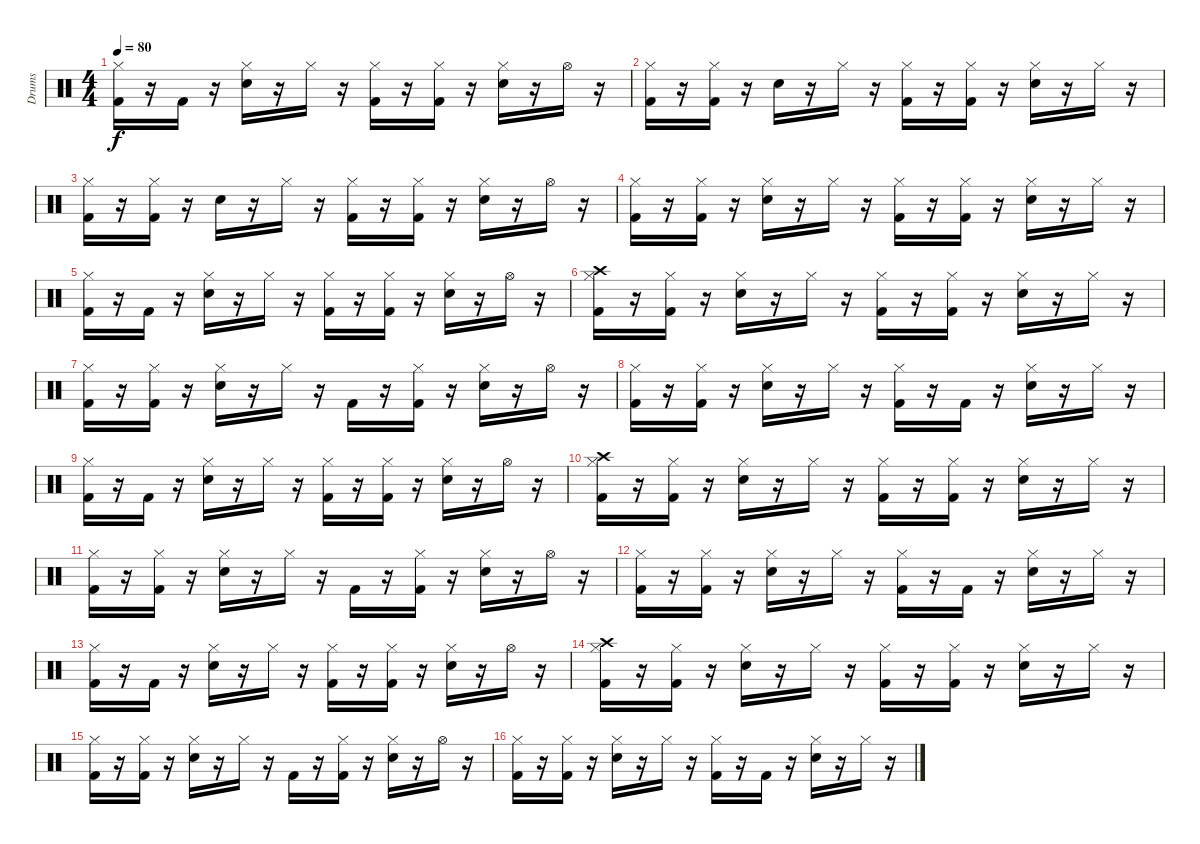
\track ("Drums" "Drums") {instrument percussion}
\staff {score}
\articulation defaults
\ts (4 4)
\tempo 80
\clef neutral
\ks c
("Kick (hit) 2" "Hi-Hat (closed)").16{dy f} r.16 "Kick (hit) 2".16 r.16 ("Snare (hit) 2" "Hi-Hat (closed)").16 r.16 "Hi-Hat (closed)".16 r.16 ("Kick (hit) 2" "Hi-Hat (closed)").16 r.16 ("Kick (hit) 2" "Hi-Hat (closed)").16 r.16 ("Snare (hit) 2" "Hi-Hat (closed)").16 r.16 "Hi-Hat (open)".16 r.16 |
("Kick (hit) 2" "Hi-Hat (closed)").16 r.16 ("Kick (hit) 2" "Hi-Hat (closed)").16 r.16 "Snare (hit) 2".16 r.16 "Hi-Hat (closed)".16 r.16 ("Kick (hit) 2" "Hi-Hat (closed)").16 r.16 ("Kick (hit) 2" "Hi-Hat (closed)").16 r.16 ("Snare (hit) 2" "Hi-Hat (closed)").16 r.16 "Hi-Hat (closed)".16 r.16 |
("Kick (hit) 2" "Hi-Hat (closed)").16 r.16 ("Kick (hit) 2" "Hi-Hat (closed)").16 r.16 "Snare (hit) 2".16 r.16 "Hi-Hat (closed)".16 r.16 ("Kick (hit) 2" "Hi-Hat (closed)").16 r.16 ("Kick (hit) 2" "Hi-Hat (closed)").16 r.16 ("Snare (hit) 2" "Hi-Hat (closed)").16 r.16 "Hi-Hat (open)".16 r.16 |
("Kick (hit) 2" "Hi-Hat (closed)").16 r.16 ("Kick (hit) 2" "Hi-Hat (closed)").16 r.16 ("Snare (hit) 2" "Hi-Hat (closed)").16 r.16 "Hi-Hat (closed)".16 r.16 ("Kick (hit) 2" "Hi-Hat (closed)").16 r.16 ("Kick (hit) 2" "Hi-Hat (closed)").16 r.16 ("Snare (hit) 2" "Hi-Hat (closed)").16 r.16 "Hi-Hat (closed)".16 r.16 |
("Kick (hit) 2" "Hi-Hat (closed)").16 r.16 "Kick (hit) 2".16 r.16 ("Snare (hit) 2" "Hi-Hat (closed)").16 r.16 "Hi-Hat (closed)".16 r.16 ("Kick (hit) 2" "Hi-Hat (closed)").16 r.16 ("Kick (hit) 2" "Hi-Hat (closed)").16 r.16 ("Snare (hit) 2" "Hi-Hat (closed)").16 r.16 "Hi-Hat (open)".16 r.16 |
("Kick (hit) 2" "Hi-Hat (closed)" "Crash high (hit)").16 r.16 ("Kick (hit) 2" "Hi-Hat (closed)").16 r.16 ("Snare (hit) 2" "Hi-Hat (closed)").16 r.16 "Hi-Hat (closed)".16 r.16 ("Kick (hit) 2" "Hi-Hat (closed)").16 r.16 ("Kick (hit) 2" "Hi-Hat (closed)").16 r.16 ("Snare (hit) 2" "Hi-Hat (closed)").16 r.16 "Hi-Hat (closed)".16 r.16 |
("Kick (hit) 2" "Hi-Hat (closed)").16 r.16 ("Kick (hit) 2" "Hi-Hat (closed)").16 r.16 ("Snare (hit) 2" "Hi-Hat (closed)").16 r.16 "Hi-Hat (closed)".16 r.16 "Kick (hit) 2".16 r.16 ("Kick (hit) 2" "Hi-Hat (closed)").16 r.16 ("Snare (hit) 2" "Hi-Hat (closed)").16 r.16 "Hi-Hat (open)".16 r.16 |
("Kick (hit) 2" "Hi-Hat (closed)").16 r.16 ("Kick (hit) 2" "Hi-Hat (closed)").16 r.16 ("Snare (hit) 2" "Hi-Hat (closed)").16 r.16 "Hi-Hat (closed)".16 r.16 ("Kick (hit) 2" "Hi-Hat (closed)").16 r.16 "Kick (hit) 2".16 r.16 ("Snare (hit) 2" "Hi-Hat (closed)").16 r.16 "Hi-Hat (closed)".16 r.16 |
("Kick (hit) 2" "Hi-Hat (closed)").16 r.16 "Kick (hit) 2".16 r.16 ("Snare (hit) 2" "Hi-Hat (closed)").16 r.16 "Hi-Hat (closed)".16 r.16 ("Kick (hit) 2" "Hi-Hat (closed)").16 r.16 ("Kick (hit) 2" "Hi-Hat (closed)").16 r.16 ("Snare (hit) 2" "Hi-Hat (closed)").16 r.16 "Hi-Hat (open)".16 r.16 |
("Kick (hit) 2" "Hi-Hat (closed)" "Crash high (hit)").16 r.16 ("Kick (hit) 2" "Hi-Hat (closed)").16 r.16 ("Snare (hit) 2" "Hi-Hat (closed)").16 r.16 "Hi-Hat (closed)".16 r.16 ("Kick (hit) 2" "Hi-Hat (closed)").16 r.16 ("Kick (hit) 2" "Hi-Hat (closed)").16 r.16 ("Snare (hit) 2" "Hi-Hat (closed)").16 r.16 "Hi-Hat (closed)".16 r.16 |
("Kick (hit) 2" "Hi-Hat (closed)").16 r.16 ("Kick (hit) 2" "Hi-Hat (closed)").16 r.16 ("Snare (hit) 2" "Hi-Hat (closed)").16 r.16 "Hi-Hat (closed)".16 r.16 "Kick (hit) 2".16 r.16 ("Kick (hit) 2" "Hi-Hat (closed)").16 r.16 ("Snare (hit) 2" "Hi-Hat (closed)").16 r.16 "Hi-Hat (open)".16 r.16 |
("Kick (hit) 2" "Hi-Hat (closed)").16 r.16 ("Kick (hit) 2" "Hi-Hat (closed)").16 r.16 ("Snare (hit) 2" "Hi-Hat (closed)").16 r.16 "Hi-Hat (closed)".16 r.16 ("Kick (hit) 2" "Hi-Hat (closed)").16 r.16 "Kick (hit) 2".16 r.16 ("Snare (hit) 2" "Hi-Hat (closed)").16 r.16 "Hi-Hat (closed)".16 r.16 |
("Kick (hit) 2" "Hi-Hat (closed)").16 r.16 "Kick (hit) 2".16 r.16 ("Snare (hit) 2" "Hi-Hat (closed)").16 r.16 "Hi-Hat (closed)".16 r.16 ("Kick (hit) 2" "Hi-Hat (closed)").16 r.16 ("Kick (hit) 2" "Hi-Hat (closed)").16 r.16 ("Snare (hit) 2" "Hi-Hat (closed)").16 r.16 "Hi-Hat (open)".16 r.16 |
("Kick (hit) 2" "Hi-Hat (closed)" "Crash high (hit)").16 r.16 ("Kick (hit) 2" "Hi-Hat (closed)").16 r.16 ("Snare (hit) 2" "Hi-Hat (closed)").16 r.16 "Hi-Hat (closed)".16 r.16 ("Kick (hit) 2" "Hi-Hat (closed)").16 r.16 ("Kick (hit) 2" "Hi-Hat (closed)").16 r.16 ("Snare (hit) 2" "Hi-Hat (closed)").16 r.16 "Hi-Hat (closed)".16 r.16 |
("Kick (hit) 2" "Hi-Hat (closed)").16 r.16 ("Kick (hit) 2" "Hi-Hat (closed)").16 r.16 ("Snare (hit) 2" "Hi-Hat (closed)").16 r.16 "Hi-Hat (closed)".16 r.16 "Kick (hit) 2".16 r.16 ("Kick (hit) 2" "Hi-Hat (closed)").16 r.16 ("Snare (hit) 2" "Hi-Hat (closed)").16 r.16 "Hi-Hat (open)".16 r.16 |
("Kick (hit) 2" "Hi-Hat (closed)").16 r.16 ("Kick (hit) 2" "Hi-Hat (closed)").16 r.16 ("Snare (hit) 2" "Hi-Hat (closed)").16 r.16 "Hi-Hat (closed)".16 r.16 ("Kick (hit) 2" "Hi-Hat (closed)").16 r.16 "Kick (hit) 2".16 r.16 ("Snare (hit) 2" "Hi-Hat (closed)").16 r.16 "Hi-Hat (closed)".16 r.16
